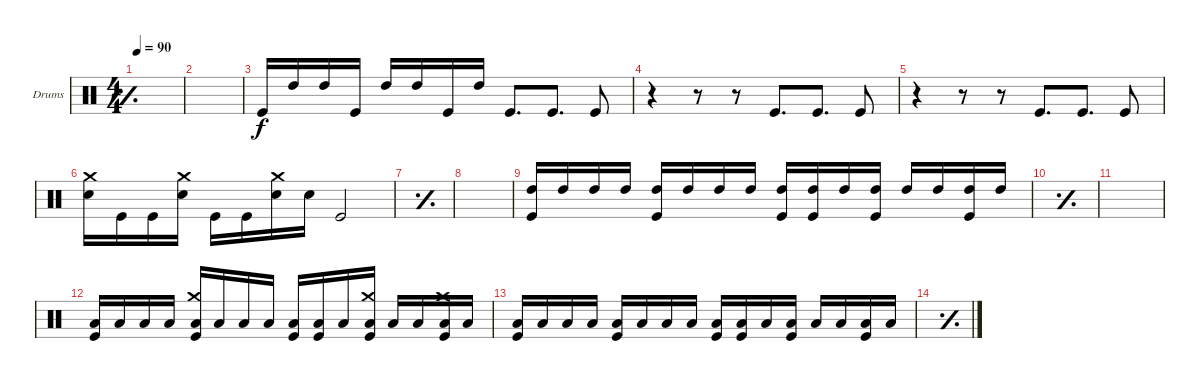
\bracketExtendMode groupsimilarinstruments
\firstSystemTrackNameOrientation horizontal
\otherSystemsTrackNameOrientation horizontal
\track ("Drumkit" "Drums") {instrument percussion}
\staff {score}
\articulation defaults
\ts (4 4)
\tempo 90
\clef neutral
\simile simple
\scale
0.333333
\ks c
|
\scale
0.333333 |
\simile none
\scale
0.333333 "Kick (hit)".16 "High Tom (hit)".16 "High Tom (hit)".16 "Kick (hit)".16 "High Tom (hit)".16 "High Tom (hit)".16 "Kick (hit)".16 "High Tom (hit)".16 "Kick (hit)".8{d} "Kick (hit)".8{d} "Kick (hit)".8 |
\scale
0.333333 r.4 r.8 r.8 "Kick (hit)".8{d} "Kick (hit)".8{d} "Kick (hit)".8 |
\scale
0.333333 r.4 r.8 r.8 "Kick (hit)".8{d} "Kick (hit)".8{d} "Kick (hit)".8 |
\scale
0.333333 ("Snare (hit) 2" "Crash medium (hit)").16 "Kick (hit)".16 "Kick (hit)".16 ("Snare (hit) 2" "Crash medium (hit)").16 "Kick (hit)".16 "Kick (hit)".16 ("Snare (hit) 2" "Crash medium (hit)").16 "Snare (hit) 2".16 "Kick (hit)".2 |
\simile simple
\scale
0.333333 |
\scale
0.333333 |
\simile none
\scale
0.333333 ("Kick (hit)" "High Tom (hit)").16 "High Tom (hit)".16 "High Tom (hit)".16 "High Tom (hit)".16 ("Kick (hit)" "High Tom (hit)").16 "High Tom (hit)".16 "High Tom (hit)".16 "High Tom (hit)".16 ("Kick (hit)" "High Tom (hit)").16 ("Kick (hit)" "High Tom (hit)").16 "High Tom (hit)".16 ("Kick (hit)" "High Tom (hit)").16 "High Tom (hit)".16 "High Tom (hit)".16 ("Kick (hit)" "High Tom (hit)").16 "High Tom (hit)".16 |
\simile simple
\scale
0.333333 |
\scale
0.333333 |
\simile none
\scale
0.333333 ("Kick (hit)" "Low Tom (hit)").16 "Low Tom (hit)".16 "Low Tom (hit)".16 "Low Tom (hit)".16 ("Kick (hit)" "Low Tom (hit)" "Crash medium (hit)").16 "Low Tom (hit)".16 "Low Tom (hit)".16 "Low Tom (hit)".16 ("Kick (hit)" "Low Tom (hit)").16 ("Kick (hit)" "Low Tom (hit)").16 "Low Tom (hit)".16 ("Kick (hit)" "Low Tom (hit)" "Crash medium (hit)").16 "Low Tom (hit)".16 "Low Tom (hit)".16 ("Kick (hit)" "Low Tom (hit)" "Crash medium (hit)").16 "Low Tom (hit)".16 |
\scale
0.333333 ("Kick (hit)" "Low Tom (hit)").16 "Low Tom (hit)".16 "Low Tom (hit)".16 "Low Tom (hit)".16 ("Kick (hit)" "Low Tom (hit)").16 "Low Tom (hit)".16 "Low Tom (hit)".16 "Low Tom (hit)".16 ("Kick (hit)" "Low Tom (hit)").16 ("Kick (hit)" "Low Tom (hit)").16 "Low Tom (hit)".16 ("Kick (hit)" "Low Tom (hit)").16 "Low Tom (hit)".16 "Low Tom (hit)".16 ("Kick (hit)" "Low Tom (hit)").16 "Low Tom (hit)".16 |
\simile simple
\scale
0.333333 |
\simile none
\scale
0.333333 |
\scale
0.333333
